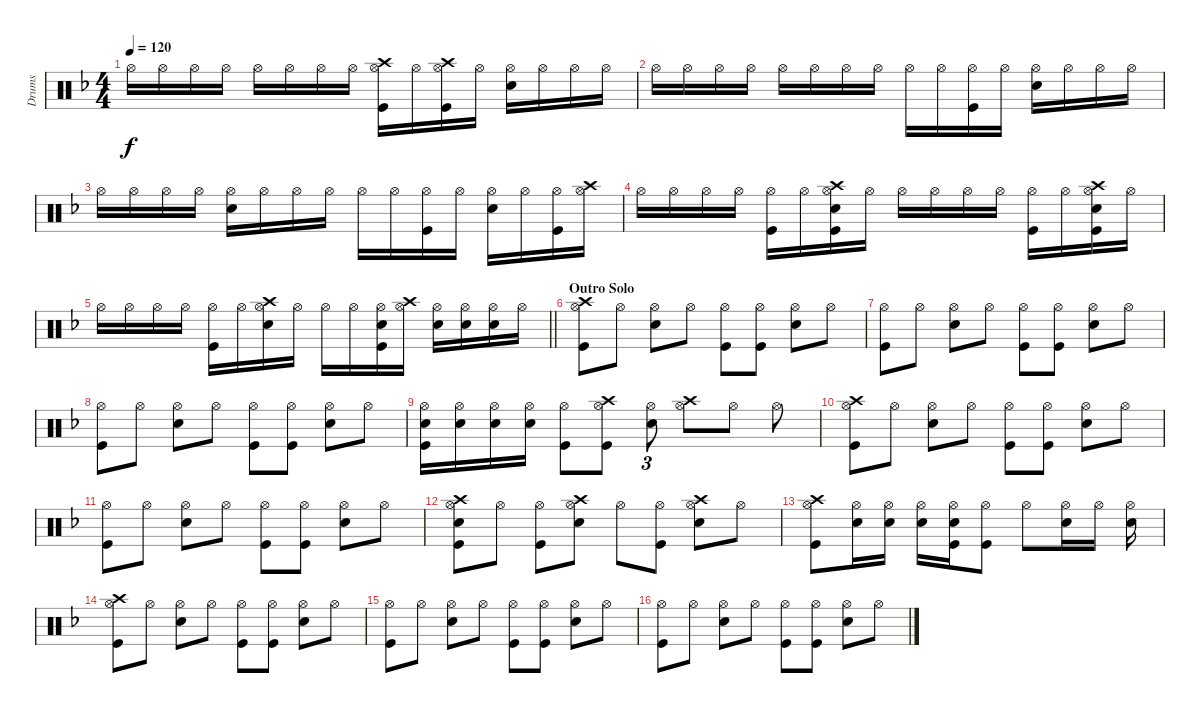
\track ("Drums" "Drums") {instrument percussion}
\staff {score}
\articulation defaults
\ts (4 4)
\tempo 120
\clef neutral
\ks f "Hi-Hat (open)".16{dy f} "Hi-Hat (open)".16 "Hi-Hat (open)".16 "Hi-Hat (open)".16 "Hi-Hat (open)".16 "Hi-Hat (open)".16 "Hi-Hat (open)".16 "Hi-Hat (open)".16
("Hi-Hat (open)" "Crash high (hit)" "Kick (hit)").16 "Hi-Hat (open)".16 ("Hi-Hat (open)" "Crash high (hit)" "Kick (hit)").16 "Hi-Hat (open)".16 ("Hi-Hat (open)" "Snare (hit) 2").16 "Hi-Hat (open)".16 "Hi-Hat (open)".16 "Hi-Hat (open)".16 |
"Hi-Hat (open)".16 "Hi-Hat (open)".16 "Hi-Hat (open)".16 "Hi-Hat (open)".16 "Hi-Hat (open)".16 "Hi-Hat (open)".16 "Hi-Hat (open)".16 "Hi-Hat (open)".16 "Hi-Hat (open)".16 "Hi-Hat (open)".16 ("Hi-Hat (open)" "Kick (hit)").16 "Hi-Hat (open)".16 ("Hi-Hat (open)" "Snare (hit) 2").16 "Hi-Hat (open)".16 "Hi-Hat (open)".16 "Hi-Hat (open)".16 |
"Hi-Hat (open)".16 "Hi-Hat (open)".16 "Hi-Hat (open)".16 "Hi-Hat (open)".16 ("Hi-Hat (open)" "Snare (hit) 2").16 "Hi-Hat (open)".16 "Hi-Hat (open)".16 "Hi-Hat (open)".16 "Hi-Hat (open)".16 "Hi-Hat (open)".16 ("Hi-Hat (open)" "Kick (hit)").16 "Hi-Hat (open)".16 ("Hi-Hat (open)" "Snare (hit) 2").16 "Hi-Hat (open)".16 ("Hi-Hat (open)" "Kick (hit)").16 ("Hi-Hat (open)" "Crash high (hit)").16 |
"Hi-Hat (open)".16 "Hi-Hat (open)".16 "Hi-Hat (open)".16 "Hi-Hat (open)".16 ("Hi-Hat (open)" "Kick (hit)").16 "Hi-Hat (open)".16 ("Hi-Hat (open)" "Crash high (hit)" "Snare (hit) 2" "Kick (hit)").16 "Hi-Hat (open)".16 "Hi-Hat (open)".16 "Hi-Hat (open)".16 "Hi-Hat (open)".16 "Hi-Hat (open)".16 ("Hi-Hat (open)" "Kick (hit)").16 "Hi-Hat (open)".16 ("Hi-Hat (open)" "Crash high (hit)" "Snare (hit) 2" "Kick (hit)").16 "Hi-Hat (open)".16 |
\barLineRight lightlight "Hi-Hat (open)".16 "Hi-Hat (open)".16 "Hi-Hat (open)".16 "Hi-Hat (open)".16
("Hi-Hat (open)" "Kick (hit)").16 "Hi-Hat (open)".16 ("Hi-Hat (open)" "Crash high (hit)" "Snare (hit) 2").16 "Hi-Hat (open)".16 "Hi-Hat (open)".16 "Hi-Hat (open)".16 ("Hi-Hat (open)" "Snare (hit) 2" "Kick (hit)").16 ("Hi-Hat (open)" "Crash high (hit)").16 ("Hi-Hat (open)" "Snare (hit) 2").16 ("Hi-Hat (open)" "Snare (hit) 2").16 ("Hi-Hat (open)" "Snare (hit) 2").16 "Hi-Hat (open)".16 |
\section ("" "Outro Solo")
("Hi-Hat (open)" "Crash high (hit)" "Kick (hit)").8 "Hi-Hat (open)".8 ("Hi-Hat (open)" "Snare (hit) 2").8 "Hi-Hat (open)".8 ("Hi-Hat (open)" "Kick (hit)").8 ("Hi-Hat (open)" "Kick (hit)").8 ("Hi-Hat (open)" "Snare (hit) 2").8 "Hi-Hat (open)".8 |
("Hi-Hat (open)" "Kick (hit)").8 "Hi-Hat (open)".8 ("Hi-Hat (open)" "Snare (hit) 2").8 "Hi-Hat (open)".8 ("Hi-Hat (open)" "Kick (hit)").8 ("Hi-Hat (open)" "Kick (hit)").8 ("Hi-Hat (open)" "Snare (hit) 2").8 "Hi-Hat (open)".8 |
("Hi-Hat (open)" "Kick (hit)").8 "Hi-Hat (open)".8 ("Hi-Hat (open)" "Snare (hit) 2").8 "Hi-Hat (open)".8 ("Hi-Hat (open)" "Kick (hit)").8 ("Hi-Hat (open)" "Kick (hit)").8 ("Hi-Hat (open)" "Snare (hit) 2").8 "Hi-Hat (open)".8 |
("Hi-Hat (open)" "Snare (hit) 2" "Kick (hit)").16 ("Hi-Hat (open)" "Snare (hit) 2").16 ("Hi-Hat (open)" "Snare (hit) 2").16 ("Hi-Hat (open)" "Snare (hit) 2").16 ("Hi-Hat (open)" "Kick (hit)").8 ("Hi-Hat (open)" "Crash high (hit)" "Kick (hit)").8 ("Hi-Hat (open)" "Snare (hit) 2").8{tu (3 2)} ("Hi-Hat (open)" "Crash high (hit)").8 "Hi-Hat (open)".8 "Hi-Hat (open)".8 |
("Hi-Hat (open)" "Crash high (hit)" "Kick (hit)").8 "Hi-Hat (open)".8 ("Hi-Hat (open)" "Snare (hit) 2").8 "Hi-Hat (open)".8 ("Hi-Hat (open)" "Kick (hit)").8 ("Hi-Hat (open)" "Kick (hit)").8 ("Hi-Hat (open)" "Snare (hit) 2").8 "Hi-Hat (open)".8 |
("Hi-Hat (open)" "Kick (hit)").8 "Hi-Hat (open)".8 ("Hi-Hat (open)" "Snare (hit) 2").8 "Hi-Hat (open)".8 ("Hi-Hat (open)" "Kick (hit)").8 ("Hi-Hat (open)" "Kick (hit)").8 ("Hi-Hat (open)" "Snare (hit) 2").8 "Hi-Hat (open)".8 |
("Hi-Hat (open)" "Crash high (hit)" "Snare (hit) 2" "Kick (hit)").8 "Hi-Hat (open)".8 ("Hi-Hat (open)" "Kick (hit)").8 ("Hi-Hat (open)" "Crash high (hit)" "Snare (hit) 2").8 "Hi-Hat (open)".8 ("Hi-Hat (open)" "Kick (hit)").8 ("Hi-Hat (open)" "Crash high (hit)" "Snare (hit) 2").8 "Hi-Hat (open)".8 |
("Hi-Hat (open)" "Crash high (hit)" "Kick (hit)").8 ("Hi-Hat (open)" "Snare (hit) 2").16 ("Hi-Hat (open)" "Snare (hit) 2").16 ("Hi-Hat (open)" "Snare (hit) 2").16 ("Hi-Hat (open)" "Snare (hit) 2" "Kick (hit)").16 ("Hi-Hat (open)" "Kick (hit)").8 "Hi-Hat (open)".8 ("Hi-Hat (open)" "Snare (hit) 2").16 "Hi-Hat (open)".16 ("Hi-Hat (open)" "Snare (hit) 2").16 |
("Hi-Hat (open)" "Crash high (hit)" "Kick (hit)").8 "Hi-Hat (open)".8 ("Hi-Hat (open)" "Snare (hit) 2").8 "Hi-Hat (open)".8 ("Hi-Hat (open)" "Kick (hit)").8 ("Hi-Hat (open)" "Kick (hit)").8 ("Hi-Hat (open)" "Snare (hit) 2").8 "Hi-Hat (open)".8 |
("Hi-Hat (open)" "Kick (hit)").8 "Hi-Hat (open)".8 ("Hi-Hat (open)" "Snare (hit) 2").8 "Hi-Hat (open)".8 ("Hi-Hat (open)" "Kick (hit)").8 ("Hi-Hat (open)" "Kick (hit)").8 ("Hi-Hat (open)" "Snare (hit) 2").8 "Hi-Hat (open)".8 |
("Hi-Hat (open)" "Kick (hit)").8 "Hi-Hat (open)".8 ("Hi-Hat (open)" "Snare (hit) 2").8 "Hi-Hat (open)".8 ("Hi-Hat (open)" "Kick (hit)").8 ("Hi-Hat (open)" "Kick (hit)").8 ("Hi-Hat (open)" "Snare (hit) 2").8 "Hi-Hat (open)".8
